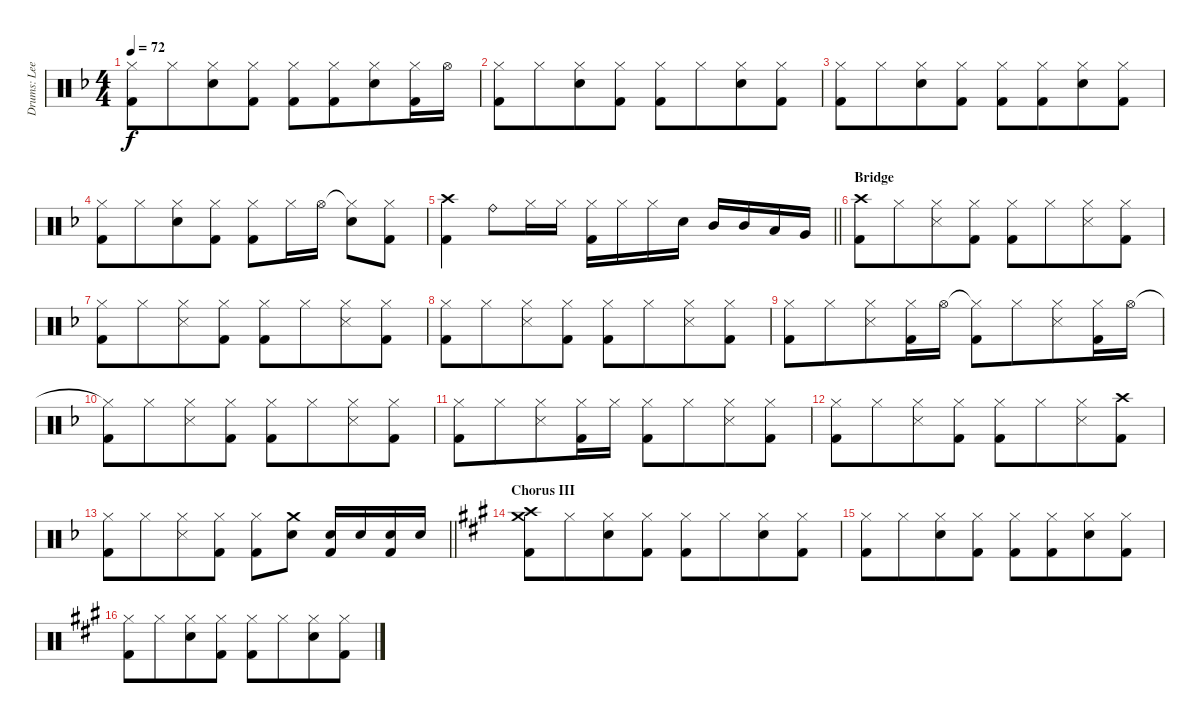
\track ("Drums: Lee" "Drums: Lee") {instrument percussion}
\staff {score}
\articulation defaults
\ts (4 4)
\tempo 72
\clef neutral
\ks f
("Hi-Hat (closed)" "Kick (hit) 2").8{dy f} "Hi-Hat (closed)".8{beam merge} ("Hi-Hat (closed)" "Snare (hit) 2").8 ("Hi-Hat (closed)" "Kick (hit) 2").8 ("Hi-Hat (closed)" "Kick (hit) 2").8 ("Hi-Hat (closed)" "Kick (hit) 2").8{beam merge} ("Hi-Hat (closed)" "Snare (hit) 2").8 ("Hi-Hat (closed)" "Kick (hit) 2").16 "Hi-Hat (open)".16 |
("Hi-Hat (closed)" "Kick (hit) 2").8 "Hi-Hat (closed)".8{beam merge} ("Hi-Hat (closed)" "Snare (hit) 2").8 ("Hi-Hat (closed)" "Kick (hit) 2").8 ("Hi-Hat (closed)" "Kick (hit) 2").8 "Hi-Hat (closed)".8{beam merge} ("Hi-Hat (closed)" "Snare (hit) 2").8 ("Hi-Hat (closed)" "Kick (hit) 2").8 |
("Hi-Hat (closed)" "Kick (hit) 2").8 "Hi-Hat (closed)".8{beam merge} ("Hi-Hat (closed)" "Snare (hit) 2").8 ("Hi-Hat (closed)" "Kick (hit) 2").8 ("Hi-Hat (closed)" "Kick (hit) 2").8 ("Hi-Hat (closed)" "Kick (hit) 2").8{beam merge} ("Hi-Hat (closed)" "Snare (hit) 2").8 ("Hi-Hat (closed)" "Kick (hit) 2").8 |
("Hi-Hat (closed)" "Kick (hit) 2").8 "Hi-Hat (closed)".8{beam merge} ("Hi-Hat (closed)" "Snare (hit) 2").8 ("Hi-Hat (closed)" "Kick (hit) 2").8 ("Hi-Hat (closed)" "Kick (hit) 2").8 "Hi-Hat (closed)".16 "Hi-Hat (open)".16 ("Hi-Hat (closed)"{t} "Snare (hit) 2").8 ("Hi-Hat (closed)" "Kick (hit) 2").8 |
\barLineRight lightlight
("Crash high (hit)" "Kick (hit) 2").4 "Ride (bell)".8 "Hi-Hat (closed)".16 "Hi-Hat (closed)".16 ("Hi-Hat (closed)" "Kick (hit) 2").16 "Hi-Hat (closed)".16 "Hi-Hat (closed)".16 "Snare (hit) 2".16 "Mid Tom (hit)".16 "Mid Tom (hit)".16 "Low Tom (hit)".16 "Very Low Tom (hit)".16 |
\section ("" "Bridge")
("Crash high (hit)" "Kick (hit) 2").8 "Hi-Hat (closed)".8{beam merge} ("Hi-Hat (closed)" "Snare (side stick) 3").8 ("Hi-Hat (closed)" "Kick (hit) 2").8 ("Hi-Hat (closed)" "Kick (hit) 2").8 "Hi-Hat (closed)".8{beam merge} ("Hi-Hat (closed)" "Snare (side stick) 3").8 ("Hi-Hat (closed)" "Kick (hit) 2").8 |
("Hi-Hat (closed)" "Kick (hit) 2").8 "Hi-Hat (closed)".8{beam merge} ("Hi-Hat (closed)" "Snare (side stick) 3").8 ("Hi-Hat (closed)" "Kick (hit) 2").8 ("Hi-Hat (closed)" "Kick (hit) 2").8 "Hi-Hat (closed)".8{beam merge} ("Hi-Hat (closed)" "Snare (side stick) 3").8 ("Hi-Hat (closed)" "Kick (hit) 2").8 |
("Hi-Hat (closed)" "Kick (hit) 2").8 "Hi-Hat (closed)".8{beam merge} ("Hi-Hat (closed)" "Snare (side stick) 3").8 ("Hi-Hat (closed)" "Kick (hit) 2").8 ("Hi-Hat (closed)" "Kick (hit) 2").8 "Hi-Hat (closed)".8{beam merge} ("Hi-Hat (closed)" "Snare (side stick) 3").8 ("Hi-Hat (closed)" "Kick (hit) 2").8 |
("Hi-Hat (closed)" "Kick (hit) 2").8 "Hi-Hat (closed)".8{beam merge} ("Hi-Hat (closed)" "Snare (side stick) 3").8 ("Hi-Hat (closed)" "Kick (hit) 2").16 "Hi-Hat (open)".16 ("Hi-Hat (closed)"{t} "Kick (hit) 2").8 "Hi-Hat (closed)".8{beam merge} ("Hi-Hat (closed)" "Snare (side stick) 3").8 ("Hi-Hat (closed)" "Kick (hit) 2").16 "Hi-Hat (open)".16 |
("Hi-Hat (closed)"{t} "Kick (hit) 2").8 "Hi-Hat (closed)".8{beam merge} ("Hi-Hat (closed)" "Snare (side stick) 3").8 ("Hi-Hat (closed)" "Kick (hit) 2").8 ("Hi-Hat (closed)" "Kick (hit) 2").8 "Hi-Hat (closed)".8{beam merge} ("Hi-Hat (closed)" "Snare (side stick) 3").8 ("Hi-Hat (closed)" "Kick (hit) 2").8 |
("Hi-Hat (closed)" "Kick (hit) 2").8 "Hi-Hat (closed)".8{beam merge} ("Hi-Hat (closed)" "Snare (side stick) 3").8 ("Hi-Hat (closed)" "Kick (hit) 2").16 "Hi-Hat (closed)".16 ("Hi-Hat (closed)" "Kick (hit) 2").8 "Hi-Hat (closed)".8{beam merge} ("Hi-Hat (closed)" "Snare (side stick) 3").8 ("Hi-Hat (closed)" "Kick (hit) 2").8 |
("Hi-Hat (closed)" "Kick (hit) 2").8 "Hi-Hat (closed)".8{beam merge} ("Hi-Hat (closed)" "Snare (side stick) 3").8 ("Hi-Hat (closed)" "Kick (hit) 2").8 ("Hi-Hat (closed)" "Kick (hit) 2").8 "Hi-Hat (closed)".8{beam merge} ("Hi-Hat (closed)" "Snare (side stick) 3").8 ("Crash high (hit)" "Kick (hit) 2").8 |
\barLineRight lightlight
("Hi-Hat (closed)" "Kick (hit) 2").8 "Hi-Hat (closed)".8{beam merge} ("Hi-Hat (closed)" "Snare (side stick) 3").8 ("Hi-Hat (closed)" "Kick (hit) 2").8 ("Hi-Hat (closed)" "Kick (hit) 2").8 ("Crash medium (hit)" "Snare (hit) 2").8 ("Snare (hit) 2" "Kick (hit) 2").16 "Snare (hit) 2".16 ("Snare (hit) 2" "Kick (hit) 2").16 "Snare (hit) 2".16 |
\section ("" "Chorus III")
\ks a
("Crash high (hit)" "Crash medium (hit)" "Kick (hit) 2").8 "Hi-Hat (closed)".8{beam merge} ("Hi-Hat (closed)" "Snare (hit) 2").8 ("Hi-Hat (closed)" "Kick (hit) 2").8 ("Hi-Hat (closed)" "Kick (hit) 2").8 "Hi-Hat (closed)".8{beam merge} ("Hi-Hat (closed)" "Snare (hit) 2").8 ("Hi-Hat (closed)" "Kick (hit) 2").8 |
("Hi-Hat (closed)" "Kick (hit) 2").8 "Hi-Hat (closed)".8{beam merge} ("Hi-Hat (closed)" "Snare (hit) 2").8 ("Hi-Hat (closed)" "Kick (hit) 2").8 ("Hi-Hat (closed)" "Kick (hit) 2").8 ("Hi-Hat (closed)" "Kick (hit) 2").8{beam merge} ("Hi-Hat (closed)" "Snare (hit) 2").8 ("Hi-Hat (closed)" "Kick (hit) 2").8 |
("Hi-Hat (closed)" "Kick (hit) 2").8 "Hi-Hat (closed)".8{beam merge} ("Hi-Hat (closed)" "Snare (hit) 2").8 ("Hi-Hat (closed)" "Kick (hit) 2").8 ("Hi-Hat (closed)" "Kick (hit) 2").8 "Hi-Hat (closed)".8{beam merge} ("Hi-Hat (closed)" "Snare (hit) 2").8 ("Hi-Hat (closed)" "Kick (hit) 2").8
